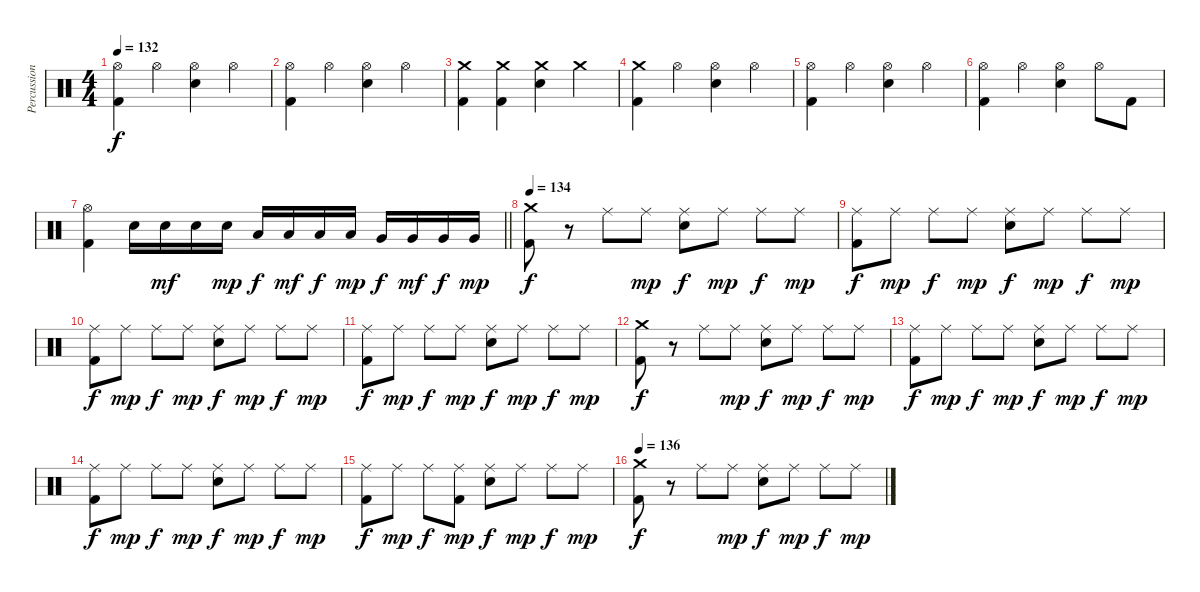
\track ("Percussion" "Percussion") {instrument percussion}
\staff {score}
\articulation defaults
\ts (4 4)
\tempo 132
\clef neutral
\ks c
("Hi-Hat (open)" "Kick (hit) 2").4{dy f} "Hi-Hat (open)".4 ("Hi-Hat (open)" "Electric Snare (hit)").4 "Hi-Hat (open)".4 |
("Hi-Hat (open)" "Kick (hit) 2").4 "Hi-Hat (open)".4 ("Hi-Hat (open)" "Electric Snare (hit)").4 "Hi-Hat (open)".4 |
("Crash medium (hit)" "Kick (hit) 2").4 ("Crash medium (hit)" "Kick (hit) 2").4 ("Crash medium (hit)" "Electric Snare (hit)").4 "Crash medium (hit)".4 |
("Crash medium (hit)" "Kick (hit) 2").4 "Hi-Hat (open)".4 ("Hi-Hat (open)" "Electric Snare (hit)").4 "Hi-Hat (open)".4 |
("Hi-Hat (open)" "Kick (hit) 2").4 "Hi-Hat (open)".4 ("Hi-Hat (open)" "Electric Snare (hit)").4 "Hi-Hat (open)".4 |
("Hi-Hat (open)" "Kick (hit) 2").4 "Hi-Hat (open)".4 ("Hi-Hat (open)" "Electric Snare (hit)").4 "Hi-Hat (open)".8 "Kick (hit) 2".8 |
\barLineRight lightlight
("Hi-Hat (open)" "Kick (hit) 2").4 "Electric Snare (hit)".16 "Electric Snare (hit)".16{dy mf} "Electric Snare (hit)".16 "Electric Snare (hit)".16{dy mp} "Low Tom (hit)".16{dy f} "Low Tom (hit)".16{dy mf} "Low Tom (hit)".16{dy f} "Low Tom (hit)".16{dy mp} "Very Low Tom (hit)".16{dy f} "Very Low Tom (hit)".16{dy mf} "Very Low Tom (hit)".16{dy f} "Very Low Tom (hit)".16{dy mp} |
\section ("" "")
\tempo 134
("Crash medium (hit)" "Kick (hit) 2").8{dy f} r.8 "Ride (middle)".8 "Ride (middle)".8{dy mp} ("Ride (middle)" "Electric Snare (hit)").8{dy f} "Ride (middle)".8{dy mp} "Ride (middle)".8{dy f} "Ride (middle)".8{dy mp} |
("Ride (middle)" "Kick (hit) 2").8{dy f} "Ride (middle)".8{dy mp} "Ride (middle)".8{dy f} "Ride (middle)".8{dy mp} ("Ride (middle)" "Electric Snare (hit)").8{dy f} "Ride (middle)".8{dy mp} "Ride (middle)".8{dy f} "Ride (middle)".8{dy mp} |
("Ride (middle)" "Kick (hit) 2").8{dy f} "Ride (middle)".8{dy mp} "Ride (middle)".8{dy f} "Ride (middle)".8{dy mp} ("Ride (middle)" "Electric Snare (hit)").8{dy f} "Ride (middle)".8{dy mp} "Ride (middle)".8{dy f} "Ride (middle)".8{dy mp} |
("Ride (middle)" "Kick (hit) 2").8{dy f} "Ride (middle)".8{dy mp} "Ride (middle)".8{dy f} "Ride (middle)".8{dy mp} ("Ride (middle)" "Electric Snare (hit)").8{dy f} "Ride (middle)".8{dy mp} "Ride (middle)".8{dy f} "Ride (middle)".8{dy mp} |
("Crash medium (hit)" "Kick (hit) 2").8{dy f} r.8 "Ride (middle)".8 "Ride (middle)".8{dy mp} ("Ride (middle)" "Electric Snare (hit)").8{dy f} "Ride (middle)".8{dy mp} "Ride (middle)".8{dy f} "Ride (middle)".8{dy mp} |
("Ride (middle)" "Kick (hit) 2").8{dy f} "Ride (middle)".8{dy mp} "Ride (middle)".8{dy f} "Ride (middle)".8{dy mp} ("Ride (middle)" "Electric Snare (hit)").8{dy f} "Ride (middle)".8{dy mp} "Ride (middle)".8{dy f} "Ride (middle)".8{dy mp} |
("Ride (middle)" "Kick (hit) 2").8{dy f} "Ride (middle)".8{dy mp} "Ride (middle)".8{dy f} "Ride (middle)".8{dy mp} ("Ride (middle)" "Electric Snare (hit)").8{dy f} "Ride (middle)".8{dy mp} "Ride (middle)".8{dy f} "Ride (middle)".8{dy mp} |
("Ride (middle)" "Kick (hit) 2").8{dy f} "Ride (middle)".8{dy mp} "Ride (middle)".8{dy f} ("Ride (middle)" "Kick (hit) 2").8{dy mp} ("Ride (middle)" "Electric Snare (hit)").8{dy f} "Ride (middle)".8{dy mp} "Ride (middle)".8{dy f} "Ride (middle)".8{dy mp} |
\tempo 136
("Crash medium (hit)" "Kick (hit) 2").8{dy f} r.8 "Ride (middle)".8 "Ride (middle)".8{dy mp} ("Ride (middle)" "Electric Snare (hit)").8{dy f} "Ride (middle)".8{dy mp} "Ride (middle)".8{dy f} "Ride (middle)".8{dy mp}
